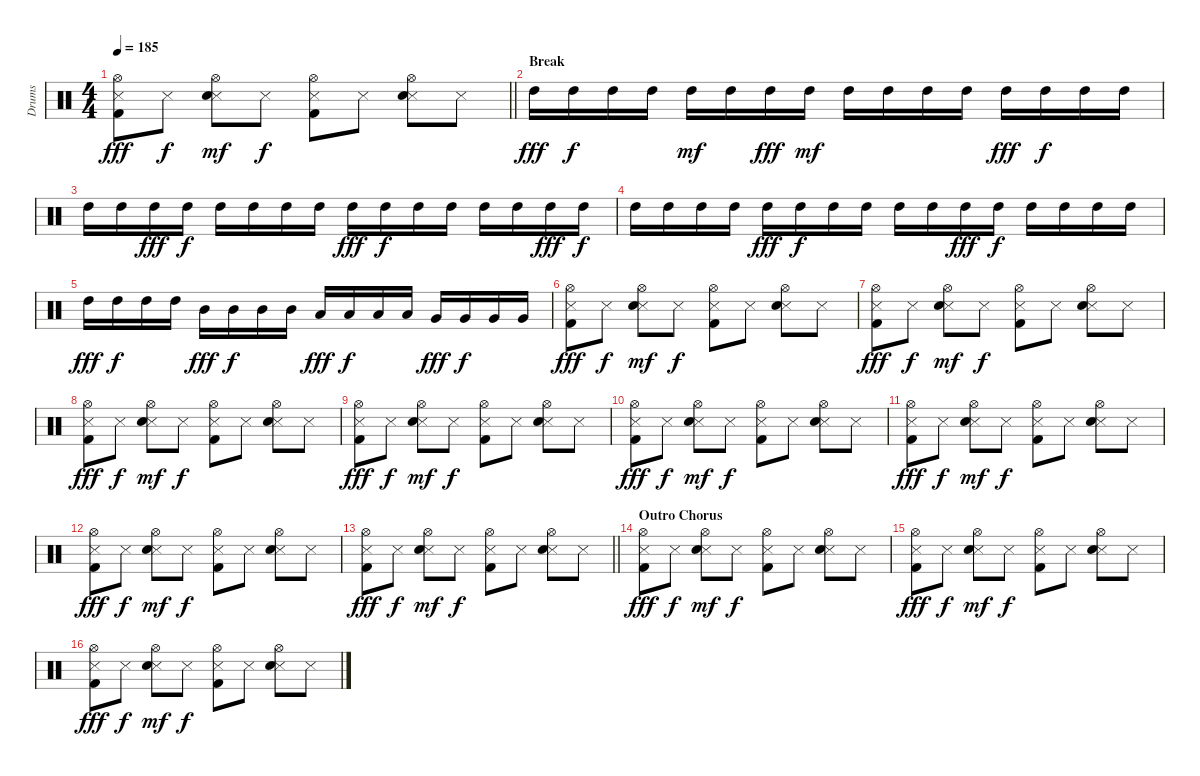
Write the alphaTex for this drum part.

\track ("Drums" "Drums") {instrument percussion}
\staff {score}
\articulation defaults
\ts (4 4)
\tempo 185
\clef neutral
\barLineRight lightlight
\ks c
("Hi-Hat (open)" "Metronome (hit)" "Kick (hit) 2").8{dy fff} "Metronome (hit)".8{dy f} ("Hi-Hat (open)" "Metronome (hit)" "Snare (hit) 2").8{dy mf} "Metronome (hit)".8{dy f} ("Hi-Hat (open)" "Metronome (hit)" "Kick (hit) 2").8 "Metronome (hit)".8 ("Hi-Hat (open)" "Metronome (hit)" "Snare (hit) 2").8 "Metronome (hit)".8 |
\section ("" "Break")
"High Tom (hit)".16{dy fff} "High Tom (hit)".16{dy f} "High Tom (hit)".16 "High Tom (hit)".16 "High Tom (hit)".16{dy mf} "High Tom (hit)".16 "High Tom (hit)".16{dy fff} "High Tom (hit)".16{dy mf} "High Tom (hit)".16 "High Tom (hit)".16 "High Tom (hit)".16 "High Tom (hit)".16 "High Tom (hit)".16{dy fff} "High Tom (hit)".16{dy f} "High Tom (hit)".16 "High Tom (hit)".16 |
"High Tom (hit)".16 "High Tom (hit)".16 "High Tom (hit)".16{dy fff} "High Tom (hit)".16{dy f} "High Tom (hit)".16 "High Tom (hit)".16 "High Tom (hit)".16 "High Tom (hit)".16 "High Tom (hit)".16{dy fff} "High Tom (hit)".16{dy f} "High Tom (hit)".16 "High Tom (hit)".16 "High Tom (hit)".16 "High Tom (hit)".16 "High Tom (hit)".16{dy fff} "High Tom (hit)".16{dy f} |
"High Tom (hit)".16 "High Tom (hit)".16 "High Tom (hit)".16 "High Tom (hit)".16 "High Tom (hit)".16{dy fff} "High Tom (hit)".16{dy f} "High Tom (hit)".16 "High Tom (hit)".16 "High Tom (hit)".16 "High Tom (hit)".16 "High Tom (hit)".16{dy fff} "High Tom (hit)".16{dy f} "High Tom (hit)".16 "High Tom (hit)".16 "High Tom (hit)".16 "High Tom (hit)".16 |
"High Tom (hit)".16{dy fff} "High Tom (hit)".16{dy f} "High Tom (hit)".16 "High Tom (hit)".16 "Mid Tom (hit)".16{dy fff} "Mid Tom (hit)".16{dy f} "Mid Tom (hit)".16 "Mid Tom (hit)".16 "Low Tom (hit)".16{dy fff} "Low Tom (hit)".16{dy f} "Low Tom (hit)".16 "Low Tom (hit)".16 "Very Low Tom (hit)".16{dy fff} "Very Low Tom (hit)".16{dy f} "Very Low Tom (hit)".16 "Very Low Tom (hit)".16 |
("Hi-Hat (open)" "Metronome (hit)" "Kick (hit) 2").8{dy fff} "Metronome (hit)".8{dy f} ("Hi-Hat (open)" "Metronome (hit)" "Snare (hit) 2").8{dy mf} "Metronome (hit)".8{dy f} ("Hi-Hat (open)" "Metronome (hit)" "Kick (hit) 2").8 "Metronome (hit)".8 ("Hi-Hat (open)" "Metronome (hit)" "Snare (hit) 2").8 "Metronome (hit)".8 |
("Hi-Hat (open)" "Metronome (hit)" "Kick (hit) 2").8{dy fff} "Metronome (hit)".8{dy f} ("Hi-Hat (open)" "Metronome (hit)" "Snare (hit) 2").8{dy mf} "Metronome (hit)".8{dy f} ("Hi-Hat (open)" "Metronome (hit)" "Kick (hit) 2").8 "Metronome (hit)".8 ("Hi-Hat (open)" "Metronome (hit)" "Snare (hit) 2").8 "Metronome (hit)".8 |
("Hi-Hat (open)" "Metronome (hit)" "Kick (hit) 2").8{dy fff} "Metronome (hit)".8{dy f} ("Hi-Hat (open)" "Metronome (hit)" "Snare (hit) 2").8{dy mf} "Metronome (hit)".8{dy f} ("Hi-Hat (open)" "Metronome (hit)" "Kick (hit) 2").8 "Metronome (hit)".8 ("Hi-Hat (open)" "Metronome (hit)" "Snare (hit) 2").8 "Metronome (hit)".8 |
("Hi-Hat (open)" "Metronome (hit)" "Kick (hit) 2").8{dy fff} "Metronome (hit)".8{dy f} ("Hi-Hat (open)" "Metronome (hit)" "Snare (hit) 2").8{dy mf} "Metronome (hit)".8{dy f} ("Hi-Hat (open)" "Metronome (hit)" "Kick (hit) 2").8 "Metronome (hit)".8 ("Hi-Hat (open)" "Metronome (hit)" "Snare (hit) 2").8 "Metronome (hit)".8 |
("Hi-Hat (open)" "Metronome (hit)" "Kick (hit) 2").8{dy fff} "Metronome (hit)".8{dy f} ("Hi-Hat (open)" "Metronome (hit)" "Snare (hit) 2").8{dy mf} "Metronome (hit)".8{dy f} ("Hi-Hat (open)" "Metronome (hit)" "Kick (hit) 2").8 "Metronome (hit)".8 ("Hi-Hat (open)" "Metronome (hit)" "Snare (hit) 2").8 "Metronome (hit)".8 |
("Hi-Hat (open)" "Metronome (hit)" "Kick (hit) 2").8{dy fff} "Metronome (hit)".8{dy f} ("Hi-Hat (open)" "Metronome (hit)" "Snare (hit) 2").8{dy mf} "Metronome (hit)".8{dy f} ("Hi-Hat (open)" "Metronome (hit)" "Kick (hit) 2").8 "Metronome (hit)".8 ("Hi-Hat (open)" "Metronome (hit)" "Snare (hit) 2").8 "Metronome (hit)".8 |
("Hi-Hat (open)" "Metronome (hit)" "Kick (hit) 2").8{dy fff} "Metronome (hit)".8{dy f} ("Hi-Hat (open)" "Metronome (hit)" "Snare (hit) 2").8{dy mf} "Metronome (hit)".8{dy f} ("Hi-Hat (open)" "Metronome (hit)" "Kick (hit) 2").8 "Metronome (hit)".8 ("Hi-Hat (open)" "Metronome (hit)" "Snare (hit) 2").8 "Metronome (hit)".8 |
\barLineRight lightlight
("Hi-Hat (open)" "Metronome (hit)" "Kick (hit) 2").8{dy fff} "Metronome (hit)".8{dy f} ("Hi-Hat (open)" "Metronome (hit)" "Snare (hit) 2").8{dy mf} "Metronome (hit)".8{dy f} ("Hi-Hat (open)" "Metronome (hit)" "Kick (hit) 2").8 "Metronome (hit)".8 ("Hi-Hat (open)" "Metronome (hit)" "Snare (hit) 2").8 "Metronome (hit)".8 |
\section ("" "Outro Chorus")
("Hi-Hat (open)" "Metronome (hit)" "Kick (hit) 2").8{dy fff} "Metronome (hit)".8{dy f} ("Hi-Hat (open)" "Metronome (hit)" "Snare (hit) 2").8{dy mf} "Metronome (hit)".8{dy f} ("Hi-Hat (open)" "Metronome (hit)" "Kick (hit) 2").8 "Metronome (hit)".8 ("Hi-Hat (open)" "Metronome (hit)" "Snare (hit) 2").8 "Metronome (hit)".8 |
("Hi-Hat (open)" "Metronome (hit)" "Kick (hit) 2").8{dy fff} "Metronome (hit)".8{dy f} ("Hi-Hat (open)" "Metronome (hit)" "Snare (hit) 2").8{dy mf} "Metronome (hit)".8{dy f} ("Hi-Hat (open)" "Metronome (hit)" "Kick (hit) 2").8 "Metronome (hit)".8 ("Hi-Hat (open)" "Metronome (hit)" "Snare (hit) 2").8 "Metronome (hit)".8 |
("Hi-Hat (open)" "Metronome (hit)" "Kick (hit) 2").8{dy fff} "Metronome (hit)".8{dy f} ("Hi-Hat (open)" "Metronome (hit)" "Snare (hit) 2").8{dy mf} "Metronome (hit)".8{dy f} ("Hi-Hat (open)" "Metronome (hit)" "Kick (hit) 2").8 "Metronome (hit)".8 ("Hi-Hat (open)" "Metronome (hit)" "Snare (hit) 2").8 "Metronome (hit)".8
